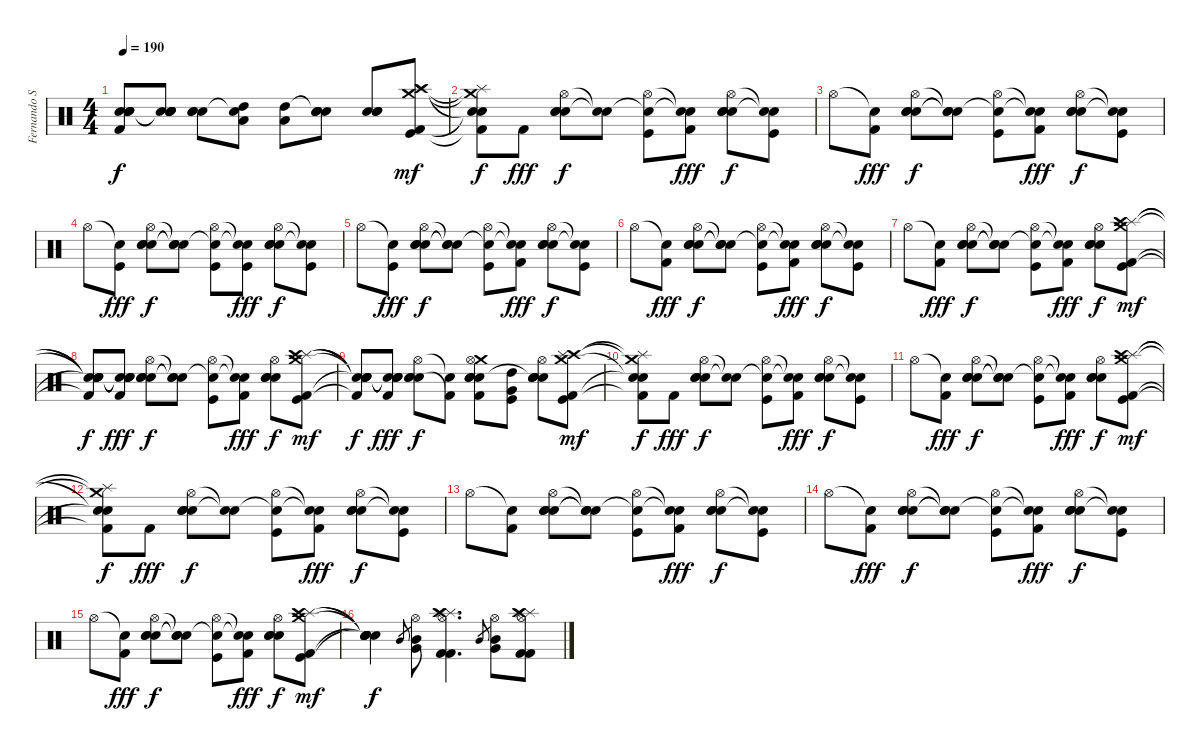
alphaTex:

\track ("Fernando Sarcella" "Fernando S") {instrument percussion}
\staff {score}
\articulation defaults
\ts (4 4)
\tempo 190
\clef neutral
\ks c
("Snare (hit)"{t} "Snare (hit)"{t} "Snare (hit)"{t} "Snare (hit)"{t} "Kick (hit) 2"{t}).8{dy f} ("Snare (hit)"{t} "Snare (hit)"{t} "Electric Snare (hit)" "Electric Snare (hit)" "Electric Snare (hit)").8 ("Electric Snare (hit)" "Electric Snare (hit)" "Electric Snare (hit)").8 ("High Tom (hit)" "Low Tom (hit)" "Snare (hit)"{t}).8 ("High Tom (hit)" "Low Tom (hit)").8 ("Snare (hit)"{t} "Electric Snare (hit)" "Electric Snare (hit)" "Electric Snare (hit)").8 ("Electric Snare (hit)" "Electric Snare (hit)" "Electric Snare (hit)").8 ("Crash medium (hit)" "Splash (hit)" "Crash high (hit)" "Kick (hit) 2" "Kick (hit)").8{dy mf} |
("Crash medium (hit)"{t} "Splash (hit)"{t} "Snare (hit)"{t} "Snare (hit)"{t} "Kick (hit) 2"{t}).8{dy f} "Kick (hit) 2".8{dy fff} ("Hi-Hat (open)" "Electric Snare (hit)" "Electric Snare (hit)" "Electric Snare (hit)").8{dy f} ("Snare (hit)"{t} "Snare (hit)"{t}).8 ("Hi-Hat (open)" "Snare (hit)"{t} "Kick (hit)").8 ("Snare (hit)"{t} "Snare (hit)"{t} "Kick (hit) 2").8{dy fff} ("Hi-Hat (open)" "Electric Snare (hit)" "Electric Snare (hit)" "Electric Snare (hit)").8{dy f} ("Snare (hit)"{t} "Snare (hit)"{t} "Kick (hit)").8 |
"Hi-Hat (open)".8 ("Snare (hit)"{t} "Kick (hit) 2").8{dy fff} ("Hi-Hat (open)" "Electric Snare (hit)" "Electric Snare (hit)" "Electric Snare (hit)").8{dy f} ("Snare (hit)"{t} "Snare (hit)"{t} "Snare (hit)"{t}).8 ("Hi-Hat (open)" "Snare (hit)"{t} "Kick (hit)").8 ("Snare (hit)"{t} "Snare (hit)"{t} "Kick (hit) 2").8{dy fff} ("Hi-Hat (open)" "Electric Snare (hit)" "Electric Snare (hit)" "Electric Snare (hit)").8{dy f} ("Snare (hit)"{t} "Snare (hit)"{t} "Kick (hit)").8 |
"Hi-Hat (open)".8 ("Snare (hit)"{t} "Kick (hit)").8{dy fff} ("Hi-Hat (open)" "Electric Snare (hit)" "Electric Snare (hit)" "Electric Snare (hit)").8{dy f} ("Snare (hit)"{t} "Snare (hit)"{t} "Snare (hit)"{t}).8 ("Hi-Hat (open)" "Snare (hit)"{t} "Kick (hit)").8 ("Snare (hit)"{t} "Snare (hit)"{t} "Kick (hit)").8{dy fff} ("Hi-Hat (open)" "Electric Snare (hit)" "Electric Snare (hit)" "Electric Snare (hit)").8{dy f} ("Snare (hit)"{t} "Snare (hit)"{t} "Kick (hit)").8 |
"Hi-Hat (open)".8 ("Snare (hit)"{t} "Kick (hit)").8{dy fff} ("Hi-Hat (open)" "Electric Snare (hit)" "Electric Snare (hit)" "Electric Snare (hit)").8{dy f} ("Snare (hit)"{t} "Snare (hit)"{t} "Snare (hit)"{t}).8 ("Hi-Hat (open)" "Snare (hit)"{t} "Kick (hit)").8 ("Snare (hit)"{t} "Snare (hit)"{t} "Kick (hit) 2").8{dy fff} ("Hi-Hat (open)" "Electric Snare (hit)" "Electric Snare (hit)" "Electric Snare (hit)").8{dy f} ("Snare (hit)"{t} "Snare (hit)"{t} "Kick (hit)").8 |
"Hi-Hat (open)".8 ("Snare (hit)"{t} "Kick (hit) 2").8{dy fff} ("Hi-Hat (open)" "Electric Snare (hit)" "Electric Snare (hit)" "Electric Snare (hit)").8{dy f} ("Snare (hit)"{t} "Snare (hit)"{t} "Snare (hit)"{t}).8 ("Hi-Hat (open)" "Snare (hit)"{t} "Kick (hit)").8 ("Snare (hit)"{t} "Snare (hit)"{t} "Kick (hit) 2").8{dy fff} ("Hi-Hat (open)" "Electric Snare (hit)" "Electric Snare (hit)" "Electric Snare (hit)").8{dy f} ("Snare (hit)"{t} "Snare (hit)"{t} "Kick (hit)").8 |
"Hi-Hat (open)".8 ("Snare (hit)"{t} "Kick (hit) 2").8{dy fff} ("Hi-Hat (open)" "Electric Snare (hit)" "Electric Snare (hit)" "Electric Snare (hit)").8{dy f} ("Snare (hit)"{t} "Snare (hit)"{t} "Snare (hit)"{t}).8 ("Hi-Hat (open)" "Snare (hit)"{t} "Kick (hit)").8 ("Snare (hit)"{t} "Snare (hit)"{t} "Kick (hit) 2").8{dy fff} ("Hi-Hat (open)" "Electric Snare (hit)" "Electric Snare (hit)" "Electric Snare (hit)").8{dy f} ("Crash medium (hit)" "Splash (hit)" "Crash high (hit)" "Kick (hit) 2" "Kick (hit)").8{dy mf} |
("Snare (hit)"{t} "Snare (hit)"{t} "Snare (hit)"{t} "Snare (hit)"{t} "Kick (hit) 2"{t}).8{dy f} ("Snare (hit)"{t} "Snare (hit)"{t} "Snare (hit)"{t} "Snare (hit)"{t} "Kick (hit) 2").8{dy fff} ("Hi-Hat (open)" "Electric Snare (hit)" "Electric Snare (hit)" "Electric Snare (hit)").8{dy f} ("Snare (hit)"{t} "Snare (hit)"{t} "Snare (hit)"{t}).8 ("Hi-Hat (open)" "Snare (hit)"{t} "Kick (hit)").8 ("Snare (hit)"{t} "Snare (hit)"{t} "Kick (hit) 2").8{dy fff} ("Hi-Hat (open)" "Electric Snare (hit)" "Electric Snare (hit)" "Electric Snare (hit)").8{dy f} ("Crash medium (hit)" "Splash (hit)" "Crash high (hit)" "Kick (hit) 2" "Kick (hit)").8{dy mf} |
("Snare (hit)"{t} "Snare (hit)"{t} "Snare (hit)"{t} "Snare (hit)"{t} "Kick (hit) 2"{t}).8{dy f} ("Snare (hit)"{t} "Snare (hit)"{t} "Snare (hit)"{t} "Snare (hit)"{t} "Kick (hit) 2").8{dy fff} ("Hi-Hat (open)" "Electric Snare (hit)" "Electric Snare (hit)" "Electric Snare (hit)").8{dy f} ("Snare (hit)"{t} "Kick (hit) 2"{t}).8 ("Crash medium (hit)" "Electric Snare (hit)" "Hi-Hat (open)" "Electric Snare (hit)" "Electric Snare (hit)" "Kick (hit) 2").8 ("Very Low Tom (hit)" "High Tom (hit)" "Kick (hit)").8 ("Electric Snare (hit)" "Hi-Hat (open)" "Electric Snare (hit)" "Electric Snare (hit)" "Snare (hit)"{t}).8 ("Crash high (hit)" "Splash (hit)" "Crash medium (hit)" "Kick (hit) 2" "Kick (hit)").8{dy mf} |
("Crash medium (hit)"{t} "Splash (hit)"{t} "Snare (hit)"{t} "Snare (hit)"{t} "Kick (hit) 2"{t}).8{dy f} "Kick (hit) 2".8{dy fff} ("Hi-Hat (open)" "Electric Snare (hit)" "Electric Snare (hit)" "Electric Snare (hit)").8{dy f} ("Snare (hit)"{t} "Snare (hit)"{t}).8 ("Hi-Hat (open)" "Snare (hit)"{t} "Kick (hit)").8 ("Snare (hit)"{t} "Snare (hit)"{t} "Kick (hit) 2").8{dy fff} ("Hi-Hat (open)" "Electric Snare (hit)" "Electric Snare (hit)" "Electric Snare (hit)").8{dy f} ("Snare (hit)"{t} "Snare (hit)"{t} "Kick (hit)").8 |
"Hi-Hat (open)".8 ("Snare (hit)"{t} "Kick (hit) 2").8{dy fff} ("Hi-Hat (open)" "Electric Snare (hit)" "Electric Snare (hit)" "Electric Snare (hit)").8{dy f} ("Snare (hit)"{t} "Snare (hit)"{t} "Snare (hit)"{t}).8 ("Hi-Hat (open)" "Snare (hit)"{t} "Kick (hit)").8 ("Snare (hit)"{t} "Snare (hit)"{t} "Kick (hit) 2").8{dy fff} ("Hi-Hat (open)" "Electric Snare (hit)" "Electric Snare (hit)" "Electric Snare (hit)").8{dy f} ("Crash medium (hit)" "Splash (hit)" "Crash high (hit)" "Kick (hit) 2" "Kick (hit)").8{dy mf} |
("Crash medium (hit)"{t} "Splash (hit)"{t} "Snare (hit)"{t} "Snare (hit)"{t} "Kick (hit) 2"{t}).8{dy f} "Kick (hit) 2".8{dy fff} ("Hi-Hat (open)" "Electric Snare (hit)" "Electric Snare (hit)" "Electric Snare (hit)").8{dy f} ("Snare (hit)"{t} "Snare (hit)"{t}).8 ("Hi-Hat (open)" "Snare (hit)"{t} "Kick (hit)").8 ("Snare (hit)"{t} "Snare (hit)"{t} "Kick (hit) 2").8{dy fff} ("Hi-Hat (open)" "Electric Snare (hit)" "Electric Snare (hit)" "Electric Snare (hit)").8{dy f} ("Snare (hit)"{t} "Snare (hit)"{t} "Kick (hit)").8 |
"Hi-Hat (open)".8 ("Snare (hit)"{t} "Kick (hit) 2").8 ("Hi-Hat (open)" "Electric Snare (hit)" "Electric Snare (hit)" "Electric Snare (hit)").8 ("Snare (hit)"{t} "Snare (hit)"{t} "Snare (hit)"{t}).8 ("Hi-Hat (open)" "Snare (hit)"{t} "Kick (hit)").8 ("Snare (hit)"{t} "Snare (hit)"{t} "Kick (hit) 2").8{dy fff} ("Hi-Hat (open)" "Electric Snare (hit)" "Electric Snare (hit)" "Electric Snare (hit)").8{dy f} ("Snare (hit)"{t} "Snare (hit)"{t} "Kick (hit)").8 |
"Hi-Hat (open)".8 ("Snare (hit)"{t} "Kick (hit) 2").8{dy fff} ("Hi-Hat (open)" "Electric Snare (hit)" "Electric Snare (hit)" "Electric Snare (hit)").8{dy f} ("Snare (hit)"{t} "Snare (hit)"{t} "Snare (hit)"{t}).8 ("Hi-Hat (open)" "Snare (hit)"{t} "Kick (hit)").8 ("Snare (hit)"{t} "Snare (hit)"{t} "Kick (hit) 2").8{dy fff} ("Hi-Hat (open)" "Electric Snare (hit)" "Electric Snare (hit)" "Electric Snare (hit)").8{dy f} ("Snare (hit)"{t} "Snare (hit)"{t} "Kick (hit)").8 |
"Hi-Hat (open)".8 ("Snare (hit)"{t} "Kick (hit) 2").8{dy fff} ("Hi-Hat (open)" "Electric Snare (hit)" "Electric Snare (hit)" "Electric Snare (hit)").8{dy f} ("Snare (hit)"{t} "Snare (hit)"{t} "Snare (hit)"{t}).8 ("Hi-Hat (open)" "Snare (hit)"{t} "Kick (hit)").8 ("Snare (hit)"{t} "Snare (hit)"{t} "Kick (hit) 2").8{dy fff} ("Hi-Hat (open)" "Electric Snare (hit)" "Electric Snare (hit)" "Electric Snare (hit)").8{dy f} ("Crash medium (hit)" "Splash (hit)" "Crash high (hit)" "Kick (hit) 2" "Kick (hit)").8{dy mf} |
("Snare (hit)"{t} "Snare (hit)"{t} "Snare (hit)"{t} "Snare (hit)"{t} "Snare (hit)"{t} "Snare (hit)").4{dy f} "Mid Tom (hit)".8{gr} ("Hi-Hat (open)" "Mid Tom (hit)" "Very Low Tom (hit)").8 ("Splash (hit)" "Splash (hit)" "Hi-Hat (open)" "Crash high (hit)" "Kick (hit) 2" "Kick (hit) 2").4{d} "Mid Tom (hit)".8{gr} ("Hi-Hat (open)" "Mid Tom (hit)" "Very Low Tom (hit)").8 ("Splash (hit)" "Splash (hit)" "Hi-Hat (open)" "Crash high (hit)" "Kick (hit) 2" "Kick (hit) 2").8
